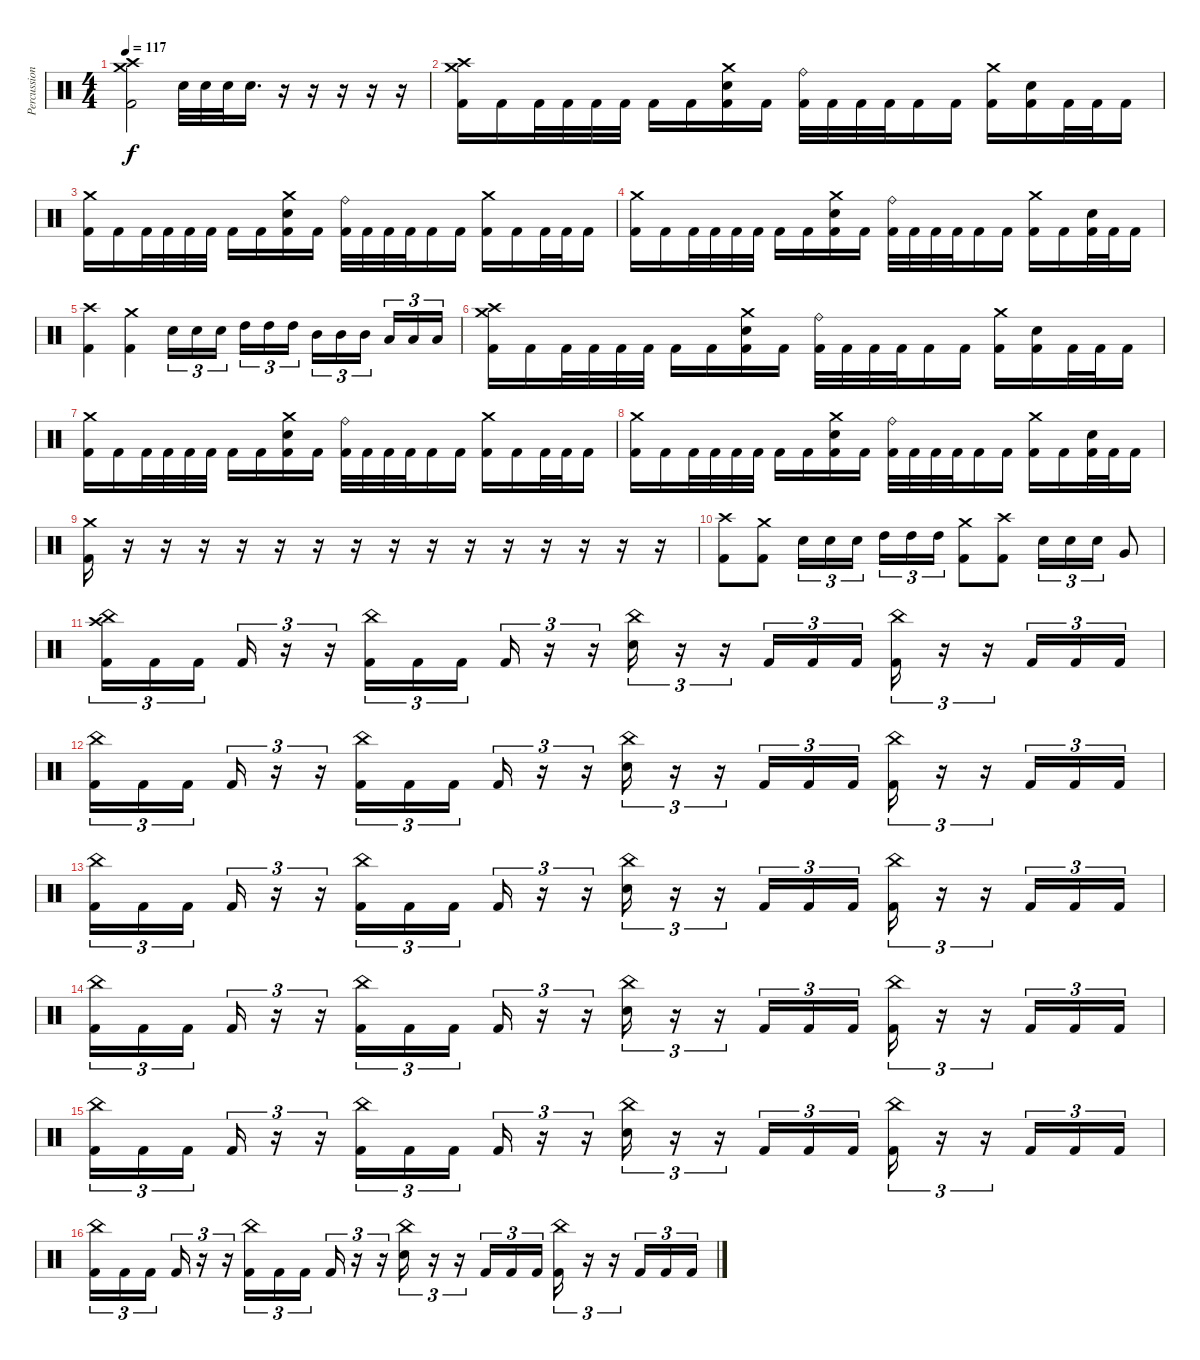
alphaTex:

\track ("Percussion" "Percussion") {instrument percussion}
\staff {score}
\articulation defaults
\ts (4 4)
\tempo 117
\clef neutral
\ks c
("Crash medium (hit)" "Crash high (hit)" "Kick (hit) 2").2{dy f} "Electric Snare (hit)".32 "Electric Snare (hit)".32 "Electric Snare (hit)".32 "Electric Snare (hit)".16{d} r.16 r.16 r.16 r.16 r.16 |
("Crash high (hit)" "Crash medium (hit)" "Kick (hit) 2").16 "Kick (hit) 2".16 "Kick (hit) 2".32 "Kick (hit) 2".32 "Kick (hit) 2".32 "Kick (hit) 2".32 "Kick (hit) 2".16 "Kick (hit) 2".16 ("Crash medium (hit)" "Electric Snare (hit)" "Kick (hit) 2").16 "Kick (hit) 2".16 ("Ride (bell)" "Kick (hit) 2").32 "Kick (hit) 2".32 "Kick (hit) 2".32 "Kick (hit) 2".32 "Kick (hit) 2".16 "Kick (hit) 2".16 ("Crash medium (hit)" "Kick (hit) 2").16 ("Electric Snare (hit)" "Kick (hit) 2").16 "Kick (hit) 2".32 "Kick (hit) 2".32 "Kick (hit) 2".16 |
("Crash medium (hit)" "Kick (hit) 2").16 "Kick (hit) 2".16 "Kick (hit) 2".32 "Kick (hit) 2".32 "Kick (hit) 2".32 "Kick (hit) 2".32 "Kick (hit) 2".16 "Kick (hit) 2".16 ("Crash medium (hit)" "Electric Snare (hit)" "Kick (hit) 2").16 "Kick (hit) 2".16 ("Ride (bell)" "Kick (hit) 2").32 "Kick (hit) 2".32 "Kick (hit) 2".32 "Kick (hit) 2".32 "Kick (hit) 2".16 "Kick (hit) 2".16 ("Crash medium (hit)" "Kick (hit) 2").16 "Kick (hit) 2".16 "Kick (hit) 2".32 "Kick (hit) 2".32 "Kick (hit) 2".16 |
("Crash medium (hit)" "Kick (hit) 2").16 "Kick (hit) 2".16 "Kick (hit) 2".32 "Kick (hit) 2".32 "Kick (hit) 2".32 "Kick (hit) 2".32 "Kick (hit) 2".16 "Kick (hit) 2".16 ("Crash medium (hit)" "Electric Snare (hit)" "Kick (hit) 2").16 "Kick (hit) 2".16 ("Ride (bell)" "Kick (hit) 2").32 "Kick (hit) 2".32 "Kick (hit) 2".32 "Kick (hit) 2".32 "Kick (hit) 2".16 "Kick (hit) 2".16 ("Crash medium (hit)" "Kick (hit) 2").16 "Kick (hit) 2".16 ("Electric Snare (hit)" "Kick (hit) 2").32 "Kick (hit) 2".32 "Kick (hit) 2".16 |
("Crash high (hit)" "Kick (hit) 2").4 ("Crash medium (hit)" "Kick (hit) 2").4 "Electric Snare (hit)".16{tu (3 2)} "Electric Snare (hit)".16{tu (3 2)} "Electric Snare (hit)".16{tu (3 2) beam splitsecondary} "High Tom (hit)".16{tu (3 2)} "High Tom (hit)".16{tu (3 2)} "High Tom (hit)".16{tu (3 2)} "Mid Tom (hit)".16{tu (3 2)} "Mid Tom (hit)".16{tu (3 2)} "Mid Tom (hit)".16{tu (3 2) beam splitsecondary} "Low Tom (hit)".16{tu (3 2)} "Low Tom (hit)".16{tu (3 2)} "Low Tom (hit)".16{tu (3 2)} |
("Crash high (hit)" "Crash medium (hit)" "Kick (hit) 2").16 "Kick (hit) 2".16 "Kick (hit) 2".32 "Kick (hit) 2".32 "Kick (hit) 2".32 "Kick (hit) 2".32 "Kick (hit) 2".16 "Kick (hit) 2".16 ("Crash medium (hit)" "Electric Snare (hit)" "Kick (hit) 2").16 "Kick (hit) 2".16 ("Ride (bell)" "Kick (hit) 2").32 "Kick (hit) 2".32 "Kick (hit) 2".32 "Kick (hit) 2".32 "Kick (hit) 2".16 "Kick (hit) 2".16 ("Crash medium (hit)" "Kick (hit) 2").16 ("Electric Snare (hit)" "Kick (hit) 2").16 "Kick (hit) 2".32 "Kick (hit) 2".32 "Kick (hit) 2".16 |
("Crash medium (hit)" "Kick (hit) 2").16 "Kick (hit) 2".16 "Kick (hit) 2".32 "Kick (hit) 2".32 "Kick (hit) 2".32 "Kick (hit) 2".32 "Kick (hit) 2".16 "Kick (hit) 2".16 ("Crash medium (hit)" "Electric Snare (hit)" "Kick (hit) 2").16 "Kick (hit) 2".16 ("Ride (bell)" "Kick (hit) 2").32 "Kick (hit) 2".32 "Kick (hit) 2".32 "Kick (hit) 2".32 "Kick (hit) 2".16 "Kick (hit) 2".16 ("Crash medium (hit)" "Kick (hit) 2").16 "Kick (hit) 2".16 "Kick (hit) 2".32 "Kick (hit) 2".32 "Kick (hit) 2".16 |
("Crash medium (hit)" "Kick (hit) 2").16 "Kick (hit) 2".16 "Kick (hit) 2".32 "Kick (hit) 2".32 "Kick (hit) 2".32 "Kick (hit) 2".32 "Kick (hit) 2".16 "Kick (hit) 2".16 ("Crash medium (hit)" "Electric Snare (hit)" "Kick (hit) 2").16 "Kick (hit) 2".16 ("Ride (bell)" "Kick (hit) 2").32 "Kick (hit) 2".32 "Kick (hit) 2".32 "Kick (hit) 2".32 "Kick (hit) 2".16 "Kick (hit) 2".16 ("Crash medium (hit)" "Kick (hit) 2").16 "Kick (hit) 2".16 ("Electric Snare (hit)" "Kick (hit) 2").32 "Kick (hit) 2".32 "Kick (hit) 2".16 |
("Crash medium (hit)" "Kick (hit) 2").16 r.16{volume 0} r.16 r.16 r.16 r.16 r.16 r.16 r.16 r.16 r.16 r.16 r.16 r.16 r.16 r.16 |
("Crash high (hit)" "Kick (hit) 2").8{volume 13} ("Crash medium (hit)" "Kick (hit) 2").8 "Electric Snare (hit)".16{tu (3 2)} "Electric Snare (hit)".16{tu (3 2)} "Electric Snare (hit)".16{tu (3 2) beam splitsecondary} "High Tom (hit)".16{tu (3 2)} "High Tom (hit)".16{tu (3 2)} "High Tom (hit)".16{tu (3 2)} ("Crash medium (hit)" "Kick (hit) 2").8 ("Crash high (hit)" "Kick (hit) 2").8 "Electric Snare (hit)".16{tu (3 2)} "Electric Snare (hit)".16{tu (3 2)} "Electric Snare (hit)".16{tu (3 2)} "Very Low Tom (hit)".8 |
("Crash high (hit)" "China (hit)" "Kick (hit) 2").16{tu (3 2)} "Kick (hit) 2".16{tu (3 2)} "Kick (hit) 2".16{tu (3 2) beam splitsecondary} "Kick (hit) 2".16{tu (3 2)} r.16{tu (3 2)} r.16{tu (3 2)} ("China (hit)" "Kick (hit) 2").16{tu (3 2)} "Kick (hit) 2".16{tu (3 2)} "Kick (hit) 2".16{tu (3 2) beam splitsecondary} "Kick (hit) 2".16{tu (3 2)} r.16{tu (3 2)} r.16{tu (3 2)} ("China (hit)" "Electric Snare (hit)").16{tu (3 2)} r.16{tu (3 2)} r.16{tu (3 2)} "Kick (hit) 2".16{tu (3 2)} "Kick (hit) 2".16{tu (3 2)} "Kick (hit) 2".16{tu (3 2)} ("China (hit)" "Kick (hit) 2").16{tu (3 2)} r.16{tu (3 2)} r.16{tu (3 2)} "Kick (hit) 2".16{tu (3 2)} "Kick (hit) 2".16{tu (3 2)} "Kick (hit) 2".16{tu (3 2)} |
("China (hit)" "Kick (hit) 2").16{tu (3 2)} "Kick (hit) 2".16{tu (3 2)} "Kick (hit) 2".16{tu (3 2) beam splitsecondary} "Kick (hit) 2".16{tu (3 2)} r.16{tu (3 2)} r.16{tu (3 2)} ("China (hit)" "Kick (hit) 2").16{tu (3 2)} "Kick (hit) 2".16{tu (3 2)} "Kick (hit) 2".16{tu (3 2) beam splitsecondary} "Kick (hit) 2".16{tu (3 2)} r.16{tu (3 2)} r.16{tu (3 2)} ("China (hit)" "Electric Snare (hit)").16{tu (3 2)} r.16{tu (3 2)} r.16{tu (3 2)} "Kick (hit) 2".16{tu (3 2)} "Kick (hit) 2".16{tu (3 2)} "Kick (hit) 2".16{tu (3 2)} ("China (hit)" "Kick (hit) 2").16{tu (3 2)} r.16{tu (3 2)} r.16{tu (3 2)} "Kick (hit) 2".16{tu (3 2)} "Kick (hit) 2".16{tu (3 2)} "Kick (hit) 2".16{tu (3 2)} |
("China (hit)" "Kick (hit) 2").16{tu (3 2)} "Kick (hit) 2".16{tu (3 2)} "Kick (hit) 2".16{tu (3 2) beam splitsecondary} "Kick (hit) 2".16{tu (3 2)} r.16{tu (3 2)} r.16{tu (3 2)} ("China (hit)" "Kick (hit) 2").16{tu (3 2)} "Kick (hit) 2".16{tu (3 2)} "Kick (hit) 2".16{tu (3 2) beam splitsecondary} "Kick (hit) 2".16{tu (3 2)} r.16{tu (3 2)} r.16{tu (3 2)} ("China (hit)" "Electric Snare (hit)").16{tu (3 2)} r.16{tu (3 2)} r.16{tu (3 2)} "Kick (hit) 2".16{tu (3 2)} "Kick (hit) 2".16{tu (3 2)} "Kick (hit) 2".16{tu (3 2)} ("China (hit)" "Kick (hit) 2").16{tu (3 2)} r.16{tu (3 2)} r.16{tu (3 2)} "Kick (hit) 2".16{tu (3 2)} "Kick (hit) 2".16{tu (3 2)} "Kick (hit) 2".16{tu (3 2)} |
("China (hit)" "Kick (hit) 2").16{tu (3 2)} "Kick (hit) 2".16{tu (3 2)} "Kick (hit) 2".16{tu (3 2) beam splitsecondary} "Kick (hit) 2".16{tu (3 2)} r.16{tu (3 2)} r.16{tu (3 2)} ("China (hit)" "Kick (hit) 2").16{tu (3 2)} "Kick (hit) 2".16{tu (3 2)} "Kick (hit) 2".16{tu (3 2) beam splitsecondary} "Kick (hit) 2".16{tu (3 2)} r.16{tu (3 2)} r.16{tu (3 2)} ("China (hit)" "Electric Snare (hit)").16{tu (3 2)} r.16{tu (3 2)} r.16{tu (3 2)} "Kick (hit) 2".16{tu (3 2)} "Kick (hit) 2".16{tu (3 2)} "Kick (hit) 2".16{tu (3 2)} ("China (hit)" "Kick (hit) 2").16{tu (3 2)} r.16{tu (3 2)} r.16{tu (3 2)} "Kick (hit) 2".16{tu (3 2)} "Kick (hit) 2".16{tu (3 2)} "Kick (hit) 2".16{tu (3 2)} |
("China (hit)" "Kick (hit) 2").16{tu (3 2)} "Kick (hit) 2".16{tu (3 2)} "Kick (hit) 2".16{tu (3 2) beam splitsecondary} "Kick (hit) 2".16{tu (3 2)} r.16{tu (3 2)} r.16{tu (3 2)} ("China (hit)" "Kick (hit) 2").16{tu (3 2)} "Kick (hit) 2".16{tu (3 2)} "Kick (hit) 2".16{tu (3 2) beam splitsecondary} "Kick (hit) 2".16{tu (3 2)} r.16{tu (3 2)} r.16{tu (3 2)} ("China (hit)" "Electric Snare (hit)").16{tu (3 2)} r.16{tu (3 2)} r.16{tu (3 2)} "Kick (hit) 2".16{tu (3 2)} "Kick (hit) 2".16{tu (3 2)} "Kick (hit) 2".16{tu (3 2)} ("China (hit)" "Kick (hit) 2").16{tu (3 2)} r.16{tu (3 2)} r.16{tu (3 2)} "Kick (hit) 2".16{tu (3 2)} "Kick (hit) 2".16{tu (3 2)} "Kick (hit) 2".16{tu (3 2)} |
("China (hit)" "Kick (hit) 2").16{tu (3 2)} "Kick (hit) 2".16{tu (3 2)} "Kick (hit) 2".16{tu (3 2) beam splitsecondary} "Kick (hit) 2".16{tu (3 2)} r.16{tu (3 2)} r.16{tu (3 2)} ("China (hit)" "Kick (hit) 2").16{tu (3 2)} "Kick (hit) 2".16{tu (3 2)} "Kick (hit) 2".16{tu (3 2) beam splitsecondary} "Kick (hit) 2".16{tu (3 2)} r.16{tu (3 2)} r.16{tu (3 2)} ("China (hit)" "Electric Snare (hit)").16{tu (3 2)} r.16{tu (3 2)} r.16{tu (3 2)} "Kick (hit) 2".16{tu (3 2)} "Kick (hit) 2".16{tu (3 2)} "Kick (hit) 2".16{tu (3 2)} ("China (hit)" "Kick (hit) 2").16{tu (3 2)} r.16{tu (3 2)} r.16{tu (3 2)} "Kick (hit) 2".16{tu (3 2)} "Kick (hit) 2".16{tu (3 2)} "Kick (hit) 2".16{tu (3 2)}
